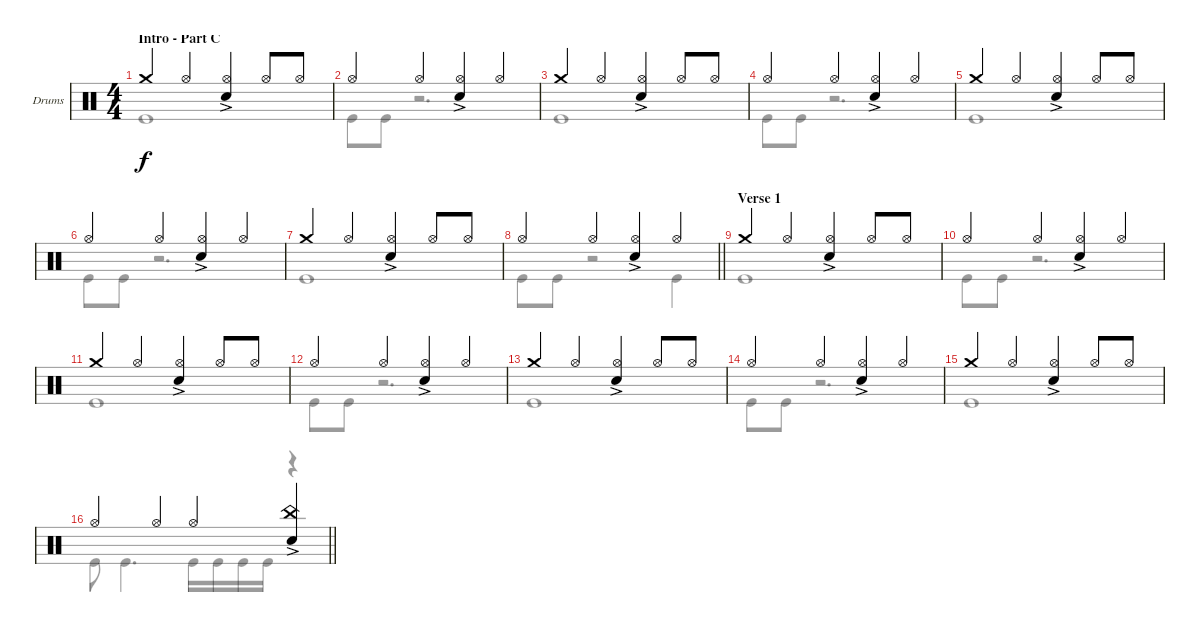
\bracketExtendMode groupsimilarinstruments
\firstSystemTrackNameOrientation horizontal
\otherSystemsTrackNameOrientation horizontal
\track ("Drumkit" "Drums") {instrument percussion}
\staff {score}
\articulation defaults
\voice
\ts (4 4)
\section ("" "Intro - Part C")
\tempo (184 "Moderate Rock" hide)
\clef neutral
\ks c "Crash medium (hit)".4{dy f} "Hi-Hat (open)".4
("Hi-Hat (open)" "Snare (hit) 2"{ac}).4 "Hi-Hat (open)".8 "Hi-Hat (open)".8 |
"Hi-Hat (open)".4 "Hi-Hat (open)".4 ("Hi-Hat (open)" "Snare (hit) 2"{ac}).4 "Hi-Hat (open)".4 |
"Crash medium (hit)".4 "Hi-Hat (open)".4 ("Hi-Hat (open)" "Snare (hit) 2"{ac}).4 "Hi-Hat (open)".8 "Hi-Hat (open)".8 |
"Hi-Hat (open)".4 "Hi-Hat (open)".4 ("Hi-Hat (open)" "Snare (hit) 2"{ac}).4 "Hi-Hat (open)".4 |
"Crash medium (hit)".4 "Hi-Hat (open)".4 ("Hi-Hat (open)" "Snare (hit) 2"{ac}).4 "Hi-Hat (open)".8 "Hi-Hat (open)".8 |
"Hi-Hat (open)".4 "Hi-Hat (open)".4 ("Hi-Hat (open)" "Snare (hit) 2"{ac}).4 "Hi-Hat (open)".4 |
"Crash medium (hit)".4 "Hi-Hat (open)".4 ("Hi-Hat (open)" "Snare (hit) 2"{ac}).4 "Hi-Hat (open)".8 "Hi-Hat (open)".8 |
\barLineRight lightlight "Hi-Hat (open)".4 "Hi-Hat (open)".4
("Hi-Hat (open)" "Snare (hit) 2"{ac}).4 "Hi-Hat (open)".4 |
\section ("" "Verse 1")
"Crash medium (hit)".4 "Hi-Hat (open)".4 ("Hi-Hat (open)" "Snare (hit) 2"{ac}).4 "Hi-Hat (open)".8 "Hi-Hat (open)".8 |
"Hi-Hat (open)".4 "Hi-Hat (open)".4 ("Hi-Hat (open)" "Snare (hit) 2"{ac}).4 "Hi-Hat (open)".4 |
"Crash medium (hit)".4 "Hi-Hat (open)".4 ("Hi-Hat (open)" "Snare (hit) 2"{ac}).4 "Hi-Hat (open)".8 "Hi-Hat (open)".8 |
"Hi-Hat (open)".4 "Hi-Hat (open)".4 ("Hi-Hat (open)" "Snare (hit) 2"{ac}).4 "Hi-Hat (open)".4 |
"Crash medium (hit)".4 "Hi-Hat (open)".4 ("Hi-Hat (open)" "Snare (hit) 2"{ac}).4 "Hi-Hat (open)".8 "Hi-Hat (open)".8 |
"Hi-Hat (open)".4 "Hi-Hat (open)".4 ("Hi-Hat (open)" "Snare (hit) 2"{ac}).4 "Hi-Hat (open)".4 |
"Crash medium (hit)".4 "Hi-Hat (open)".4 ("Hi-Hat (open)" "Snare (hit) 2"{ac}).4 "Hi-Hat (open)".8 "Hi-Hat (open)".8 |
\barLineRight lightlight "Hi-Hat (open)".4 "Hi-Hat (open)".4 "Hi-Hat (open)".4
("China (hit)" "Snare (hit) 2"{ac}).4
\voice
\clef neutral
\ottava regular
\simile none
\ks c "Kick (hit)".1{dy f}
|
"Kick (hit)".8 "Kick (hit)".8 r.2{d} |
"Kick (hit)".1 |
"Kick (hit)".8 "Kick (hit)".8 r.2{d} |
"Kick (hit)".1 |
"Kick (hit)".8 "Kick (hit)".8 r.2{d} |
"Kick (hit)".1 |
\barLineRight lightlight "Kick (hit)".8 "Kick (hit)".8
r.2 "Kick (hit)".4 |
"Kick (hit)".1 |
"Kick (hit)".8 "Kick (hit)".8 r.2{d} |
"Kick (hit)".1 |
"Kick (hit)".8 "Kick (hit)".8 r.2{d} |
"Kick (hit)".1 |
"Kick (hit)".8 "Kick (hit)".8 r.2{d} |
"Kick (hit)".1 |
\barLineRight lightlight "Kick (hit)".8 "Kick (hit)".4{d} "Kick (hit)".16 "Kick (hit)".16 "Kick (hit)".16 "Kick (hit)".16
r.4
